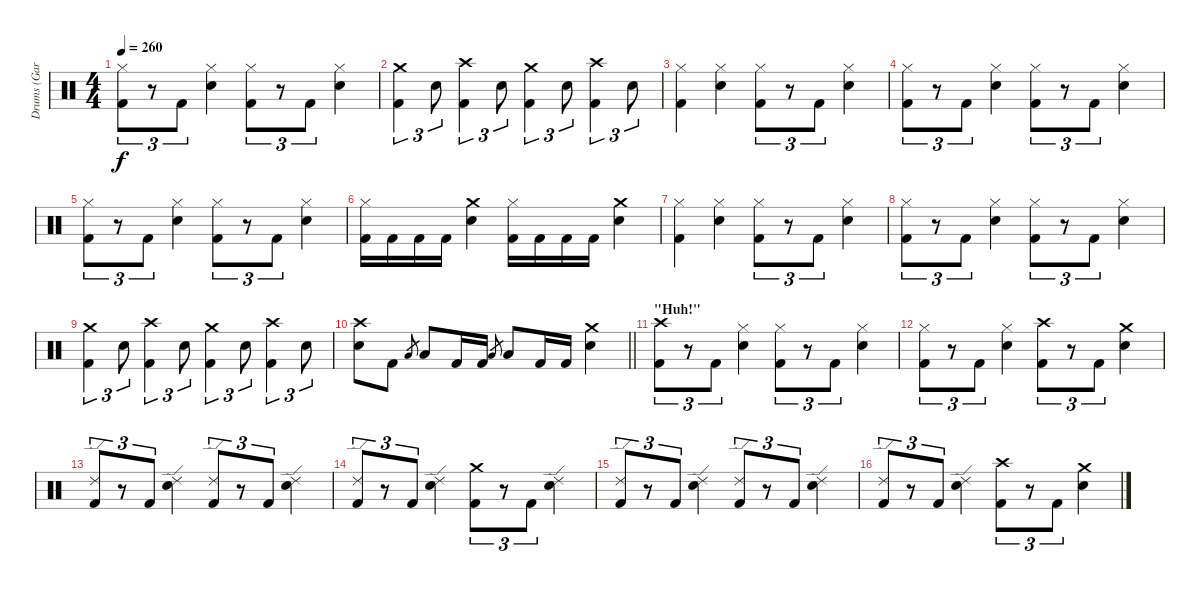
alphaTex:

\track ("Drums (Gar Samuelson)" "Drums (Gar") {instrument percussion}
\staff {score}
\articulation defaults
\ts (4 4)
\tempo 260
\clef neutral
\ks c
("Hi-Hat (closed)" "Kick (hit) 2").8{tu (3 2) dy f} r.8{tu (3 2)} "Kick (hit) 2".8{tu (3 2)} ("Hi-Hat (closed)" "Snare (hit) 2").4 ("Hi-Hat (closed)" "Kick (hit) 2").8{tu (3 2)} r.8{tu (3 2)} "Kick (hit) 2".8{tu (3 2)} ("Hi-Hat (closed)" "Snare (hit) 2").4 |
("Crash medium (hit)" "Kick (hit) 2").4{tu (3 2)} "Snare (hit) 2".8{tu (3 2)} ("Crash high (hit)" "Kick (hit) 2").4{tu (3 2)} "Snare (hit) 2".8{tu (3 2)} ("Crash medium (hit)" "Kick (hit) 2").4{tu (3 2)} "Snare (hit) 2".8{tu (3 2)} ("Crash high (hit)" "Kick (hit) 2").4{tu (3 2)} "Snare (hit) 2".8{tu (3 2)} |
("Hi-Hat (closed)" "Kick (hit) 2").4 ("Hi-Hat (closed)" "Snare (hit) 2").4 ("Hi-Hat (closed)" "Kick (hit) 2").8{tu (3 2)} r.8{tu (3 2)} "Kick (hit) 2".8{tu (3 2)} ("Hi-Hat (closed)" "Snare (hit) 2").4 |
("Hi-Hat (closed)" "Kick (hit) 2").8{tu (3 2)} r.8{tu (3 2)} "Kick (hit) 2".8{tu (3 2)} ("Hi-Hat (closed)" "Snare (hit) 2").4 ("Hi-Hat (closed)" "Kick (hit) 2").8{tu (3 2)} r.8{tu (3 2)} "Kick (hit) 2".8{tu (3 2)} ("Hi-Hat (closed)" "Snare (hit) 2").4 |
("Hi-Hat (closed)" "Kick (hit) 2").8{tu (3 2)} r.8{tu (3 2)} "Kick (hit) 2".8{tu (3 2)} ("Hi-Hat (closed)" "Snare (hit) 2").4 ("Hi-Hat (closed)" "Kick (hit) 2").8{tu (3 2)} r.8{tu (3 2)} "Kick (hit) 2".8{tu (3 2)} ("Hi-Hat (closed)" "Snare (hit) 2").4 |
("Hi-Hat (closed)" "Kick (hit) 2").16 "Kick (hit) 2".16 "Kick (hit) 2".16 "Kick (hit) 2".16 ("Crash medium (hit)" "Snare (hit) 2").4 ("Hi-Hat (closed)" "Kick (hit) 2").16 "Kick (hit) 2".16 "Kick (hit) 2".16 "Kick (hit) 2".16 ("Crash medium (hit)" "Snare (hit) 2").4 |
("Hi-Hat (closed)" "Kick (hit) 2").4 ("Hi-Hat (closed)" "Snare (hit) 2").4 ("Hi-Hat (closed)" "Kick (hit) 2").8{tu (3 2)} r.8{tu (3 2)} "Kick (hit) 2".8{tu (3 2)} ("Hi-Hat (closed)" "Snare (hit) 2").4 |
("Hi-Hat (closed)" "Kick (hit) 2").8{tu (3 2)} r.8{tu (3 2)} "Kick (hit) 2".8{tu (3 2)} ("Hi-Hat (closed)" "Snare (hit) 2").4 ("Hi-Hat (closed)" "Kick (hit) 2").8{tu (3 2)} r.8{tu (3 2)} "Kick (hit) 2".8{tu (3 2)} ("Hi-Hat (closed)" "Snare (hit) 2").4 |
("Crash medium (hit)" "Kick (hit) 2").4{tu (3 2)} "Snare (hit) 2".8{tu (3 2)} ("Crash high (hit)" "Kick (hit) 2").4{tu (3 2)} "Snare (hit) 2".8{tu (3 2)} ("Crash medium (hit)" "Kick (hit) 2").4{tu (3 2)} "Snare (hit) 2".8{tu (3 2)} ("Crash high (hit)" "Kick (hit) 2").4{tu (3 2)} "Snare (hit) 2".8{tu (3 2)} |
\barLineRight lightlight
("Crash high (hit)" "Snare (hit) 2").8 "Kick (hit) 2".8 "Low Tom (hit)".8{gr} "Low Tom (hit)".8 "Kick (hit) 2".16 "Kick (hit) 2".16 "Low Floor Tom (hit)".8{gr} "Low Floor Tom (hit)".8 "Kick (hit) 2".16 "Kick (hit) 2".16 ("Crash medium (hit)" "Snare (hit) 2").4 |
\section ("" "\"Huh!\"")
("Crash high (hit)" "Kick (hit) 2").8{tu (3 2)} r.8{tu (3 2)} "Kick (hit) 2".8{tu (3 2)} ("Hi-Hat (closed)" "Snare (hit) 2").4 ("Hi-Hat (closed)" "Kick (hit) 2").8{tu (3 2)} r.8{tu (3 2)} "Kick (hit) 2".8{tu (3 2)} ("Hi-Hat (closed)" "Snare (hit) 2").4 |
("Hi-Hat (closed)" "Kick (hit) 2").8{tu (3 2)} r.8{tu (3 2)} "Kick (hit) 2".8{tu (3 2)} ("Hi-Hat (closed)" "Snare (hit) 2").4 ("Crash high (hit)" "Kick (hit) 2").8{tu (3 2)} r.8{tu (3 2)} "Kick (hit) 2".8{tu (3 2)} ("Crash medium (hit)" "Snare (hit) 2").4 |
("Ride (edge) 2" "Kick (hit) 2").8{tu (3 2)} r.8{tu (3 2)} "Kick (hit) 2".8{tu (3 2)} ("Ride (edge) 2" "Snare (hit) 2").4 ("Ride (edge) 2" "Kick (hit) 2").8{tu (3 2)} r.8{tu (3 2)} "Kick (hit) 2".8{tu (3 2)} ("Ride (edge) 2" "Snare (hit) 2").4 |
("Ride (edge) 2" "Kick (hit) 2").8{tu (3 2)} r.8{tu (3 2)} "Kick (hit) 2".8{tu (3 2)} ("Ride (edge) 2" "Snare (hit) 2").4 ("Crash medium (hit)" "Kick (hit) 2").8{tu (3 2)} r.8{tu (3 2)} "Kick (hit) 2".8{tu (3 2)} ("Ride (edge) 2" "Snare (hit) 2").4 |
("Ride (edge) 2" "Kick (hit) 2").8{tu (3 2)} r.8{tu (3 2)} "Kick (hit) 2".8{tu (3 2)} ("Ride (edge) 2" "Snare (hit) 2").4 ("Ride (edge) 2" "Kick (hit) 2").8{tu (3 2)} r.8{tu (3 2)} "Kick (hit) 2".8{tu (3 2)} ("Ride (edge) 2" "Snare (hit) 2").4 |
("Ride (edge) 2" "Kick (hit) 2").8{tu (3 2)} r.8{tu (3 2)} "Kick (hit) 2".8{tu (3 2)} ("Ride (edge) 2" "Snare (hit) 2").4 ("Crash high (hit)" "Kick (hit) 2").8{tu (3 2)} r.8{tu (3 2)} "Kick (hit) 2".8{tu (3 2)} ("Crash medium (hit)" "Snare (hit) 2").4
